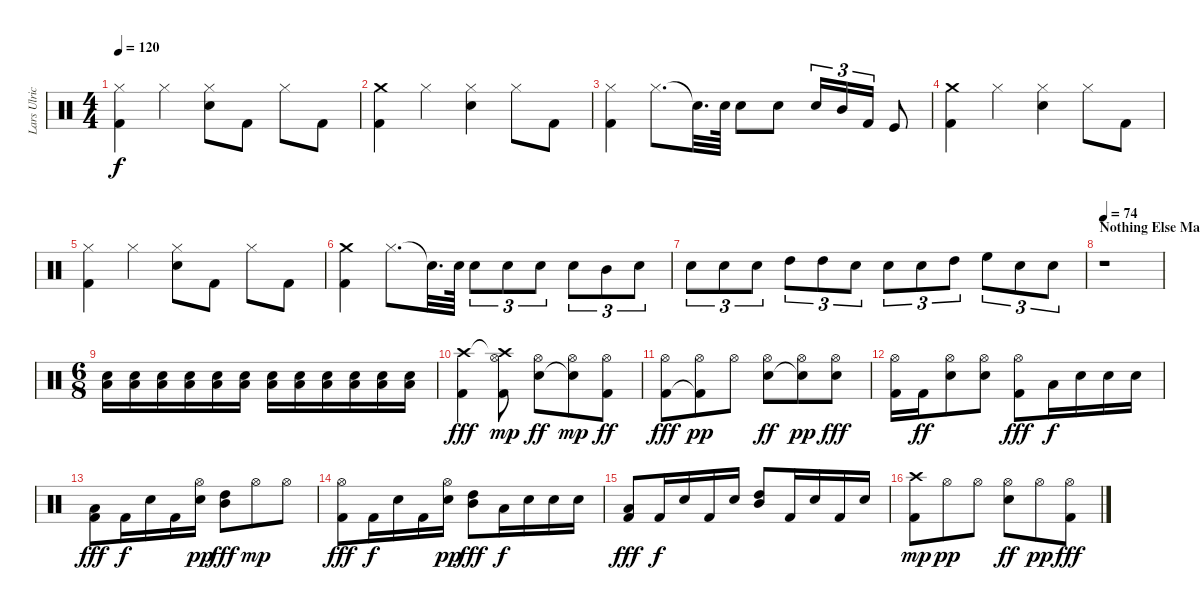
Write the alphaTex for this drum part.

\track ("Lars Ulrich (Drums)" "Lars Ulric") {instrument percussion}
\staff {score}
\articulation defaults
\ts (4 4)
\tempo 120
\clef neutral
\ks c
("Kick (hit) 2" "Hi-Hat (closed)").4{dy f} "Hi-Hat (closed)".4 ("Snare (hit) 2" "Hi-Hat (closed)").8 "Kick (hit) 2".8 "Hi-Hat (closed)".8 "Kick (hit) 2".8 |
("Kick (hit) 2" "Crash medium (hit)").4 "Hi-Hat (closed)".4 ("Snare (hit) 2" "Hi-Hat (closed)").4 "Hi-Hat (closed)".8 "Kick (hit) 2".8 |
("Hi-Hat (closed)" "Kick (hit) 2").4 "Hi-Hat (closed)".8{d} "Snare (hit)"{t}.32{d} "Snare (hit) 2".64 "Snare (hit) 2".8 "Snare (hit) 2".8 "Snare (hit) 2".16{tu (3 2)} "Mid Tom (hit)".16{tu (3 2)} "Kick (hit) 2".16{tu (3 2)} "Kick (hit)".8 |
("Kick (hit) 2" "Crash medium (hit)").4 "Hi-Hat (closed)".4 ("Snare (hit) 2" "Hi-Hat (closed)").4 "Hi-Hat (closed)".8 "Kick (hit) 2".8 |
("Kick (hit) 2" "Hi-Hat (closed)").4 "Hi-Hat (closed)".4 ("Snare (hit) 2" "Hi-Hat (closed)").8 "Kick (hit) 2".8 "Hi-Hat (closed)".8 "Kick (hit) 2".8 |
("Kick (hit) 2" "Crash medium (hit)").4 "Hi-Hat (closed)".8{d} "Snare (hit)"{t}.32{d} "Snare (hit) 2".64 "Snare (hit) 2".8{tu (3 2)} "Snare (hit) 2".8{tu (3 2)} "Snare (hit) 2".8{tu (3 2)} "Snare (hit) 2".8{tu (3 2)} "Mid Tom (hit)".8{tu (3 2)} "Snare (hit) 2".8{tu (3 2)} |
"Snare (hit) 2".8{tu (3 2)} "Snare (hit) 2".8{tu (3 2)} "Snare (hit) 2".8{tu (3 2)} "High Tom (hit)".8{tu (3 2)} "High Tom (hit)".8{tu (3 2)} "Snare (hit) 2".8{tu (3 2)} "Snare (hit) 2".8{tu (3 2)} "Snare (hit) 2".8{tu (3 2)} "High Tom (hit)".8{tu (3 2)} "High Floor Tom (hit)".8{tu (3 2)} "Snare (hit) 2".8{tu (3 2)} "Snare (hit) 2".8{tu (3 2)} |
\section ("" "Nothing Else Matters - Easy Solo (Tempo 74)")
\tempo 74
r.1 |
\ts (6 8)
("Snare (hit) 2" "Low Tom (hit)").16 ("Snare (hit) 2" "Low Tom (hit)").16 ("Snare (hit) 2" "Low Tom (hit)").16 ("Snare (hit) 2" "Low Tom (hit)").16 ("Snare (hit) 2" "Low Tom (hit)").16 ("Snare (hit) 2" "Low Tom (hit)").16 ("Snare (hit) 2" "Low Tom (hit)").16 ("Snare (hit) 2" "Low Tom (hit)").16 ("Snare (hit) 2" "Low Tom (hit)").16 ("Snare (hit) 2" "Low Tom (hit)").16 ("Snare (hit) 2" "Low Tom (hit)").16 ("Snare (hit) 2" "Low Tom (hit)").16 |
("Crash high (hit)" "Kick (hit) 2").4{dy fff} ("Crash high (hit)"{t} "Hi-Hat (open)" "Kick (hit) 2").8{dy mp} ("Hi-Hat (open)" "Snare (hit) 2").8{dy ff} ("Hi-Hat (open)" "Snare (hit) 2"{t}).8{dy mp} ("Hi-Hat (open)" "Kick (hit) 2").8{dy ff} |
("Hi-Hat (open)" "Kick (hit) 2").8{dy fff} ("Hi-Hat (open)" "Kick (hit) 2"{t}).8{dy pp} "Hi-Hat (open)".8 ("Hi-Hat (open)" "Snare (hit) 2").8{dy ff} ("Hi-Hat (open)" "Snare (hit) 2"{t}).8{dy pp} ("Hi-Hat (open)" "Snare (hit) 2").8{dy fff} |
("Hi-Hat (open)" "Kick (hit) 2").16 "Kick (hit) 2".16{dy ff} ("Hi-Hat (open)" "Snare (hit) 2").8 ("Hi-Hat (open)" "Snare (hit) 2").8 ("Hi-Hat (open)" "Kick (hit) 2").8{dy fff} "Low Tom (hit)".16{dy f} "Snare (hit) 2".16 "Snare (hit) 2".16 "Snare (hit) 2".16 |
("Kick (hit) 2" "Low Tom (hit)").8{dy fff} "Kick (hit) 2".16{dy f} "Snare (hit) 2".16 "Kick (hit) 2".16 ("Snare (hit) 2" "Hi-Hat (open)").16{dy pp} ("Mid Tom (hit)" "High Tom (hit)").8{dy fff} "Hi-Hat (open)".8{dy mp} "Hi-Hat (open)".8 |
("Hi-Hat (open)" "Kick (hit) 2").8{dy fff} "Kick (hit) 2".16{dy f} "Snare (hit) 2".16 "Kick (hit) 2".16 ("Snare (hit) 2" "Hi-Hat (open)").16{dy pp} ("Mid Tom (hit)" "High Tom (hit)").8{dy fff} "Low Tom (hit)".16{dy f} "Snare (hit) 2".16 "Snare (hit) 2".16 "Snare (hit) 2".16 |
("Kick (hit) 2" "Low Tom (hit)").8{dy fff} "Kick (hit) 2".16{dy f} "Snare (hit) 2".16 "Kick (hit) 2".16 "Snare (hit) 2".16 ("Mid Tom (hit)" "High Tom (hit)").8 "Kick (hit) 2".16 "Snare (hit) 2".16 "Kick (hit) 2".16 "Snare (hit) 2".16 |
("Kick (hit) 2" "Crash high (hit)").8{dy mp} "Hi-Hat (open)".8{dy pp} "Hi-Hat (open)".8 ("Hi-Hat (open)" "Snare (hit) 2").8{dy ff} "Hi-Hat (open)".8{dy pp} ("Hi-Hat (open)" "Kick (hit) 2").8{dy fff}
